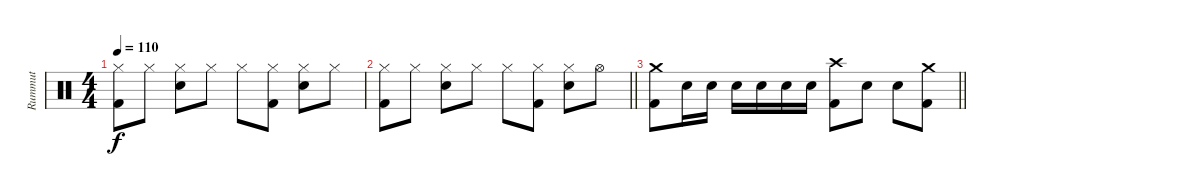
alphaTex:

\track ("Rummut" "Rummut") {instrument percussion}
\staff {score}
\articulation defaults
\ts (4 4)
\tempo 110
\clef neutral
\ks c
("Hi-Hat (closed)" "Kick (hit) 2").8{dy f} "Hi-Hat (closed)".8 ("Hi-Hat (closed)" "Snare (hit) 2").8 "Hi-Hat (closed)".8 "Hi-Hat (closed)".8 ("Hi-Hat (closed)" "Kick (hit) 2").8 ("Hi-Hat (closed)" "Snare (hit) 2").8 "Hi-Hat (closed)".8 |
\barLineRight lightlight
("Hi-Hat (closed)" "Kick (hit) 2").8 "Hi-Hat (closed)".8 ("Hi-Hat (closed)" "Snare (hit) 2").8 "Hi-Hat (closed)".8 "Hi-Hat (closed)".8 ("Hi-Hat (closed)" "Kick (hit) 2").8 ("Hi-Hat (closed)" "Snare (hit) 2").8 "Hi-Hat (open)".8 |
\barLineRight lightlight
("Kick (hit) 2" "Crash medium (hit)").8 "Snare (hit) 2".16 "Snare (hit) 2".16 "Snare (hit) 2".16 "Snare (hit) 2".16 "Snare (hit) 2".16 "Snare (hit) 2".16 ("Kick (hit) 2" "Crash high (hit)").8 "Snare (hit) 2".8 "Snare (hit) 2".8 ("Kick (hit) 2" "Crash medium (hit)").8
